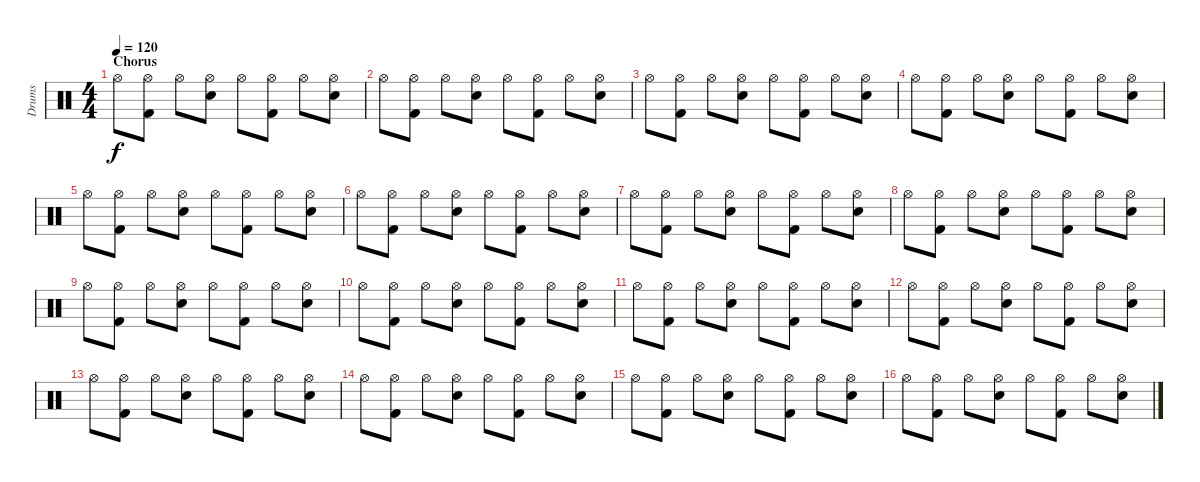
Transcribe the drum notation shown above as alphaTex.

\track ("Drums" "Drums") {instrument percussion}
\staff {score}
\articulation defaults
\ts (4 4)
\section ("" "Chorus")
\tempo 120
\clef neutral
\ks c "Hi-Hat (open)".8{dy f}
("Hi-Hat (open)" "Kick (hit) 2").8 "Hi-Hat (open)".8 ("Hi-Hat (open)" "Snare (hit) 2").8 "Hi-Hat (open)".8 ("Hi-Hat (open)" "Kick (hit) 2").8 "Hi-Hat (open)".8 ("Hi-Hat (open)" "Snare (hit) 2").8 |
"Hi-Hat (open)".8 ("Hi-Hat (open)" "Kick (hit) 2").8 "Hi-Hat (open)".8 ("Hi-Hat (open)" "Snare (hit) 2").8 "Hi-Hat (open)".8 ("Hi-Hat (open)" "Kick (hit) 2").8 "Hi-Hat (open)".8 ("Hi-Hat (open)" "Snare (hit) 2").8 |
"Hi-Hat (open)".8 ("Hi-Hat (open)" "Kick (hit) 2").8 "Hi-Hat (open)".8 ("Hi-Hat (open)" "Snare (hit) 2").8 "Hi-Hat (open)".8 ("Hi-Hat (open)" "Kick (hit) 2").8 "Hi-Hat (open)".8 ("Hi-Hat (open)" "Snare (hit) 2").8 |
"Hi-Hat (open)".8 ("Hi-Hat (open)" "Kick (hit) 2").8 "Hi-Hat (open)".8 ("Hi-Hat (open)" "Snare (hit) 2").8 "Hi-Hat (open)".8 ("Hi-Hat (open)" "Kick (hit) 2").8 "Hi-Hat (open)".8 ("Hi-Hat (open)" "Snare (hit) 2").8 |
"Hi-Hat (open)".8 ("Hi-Hat (open)" "Kick (hit) 2").8 "Hi-Hat (open)".8 ("Hi-Hat (open)" "Snare (hit) 2").8 "Hi-Hat (open)".8 ("Hi-Hat (open)" "Kick (hit) 2").8 "Hi-Hat (open)".8 ("Hi-Hat (open)" "Snare (hit) 2").8 |
"Hi-Hat (open)".8 ("Hi-Hat (open)" "Kick (hit) 2").8 "Hi-Hat (open)".8 ("Hi-Hat (open)" "Snare (hit) 2").8 "Hi-Hat (open)".8 ("Hi-Hat (open)" "Kick (hit) 2").8 "Hi-Hat (open)".8 ("Hi-Hat (open)" "Snare (hit) 2").8 |
"Hi-Hat (open)".8 ("Hi-Hat (open)" "Kick (hit) 2").8 "Hi-Hat (open)".8 ("Hi-Hat (open)" "Snare (hit) 2").8 "Hi-Hat (open)".8 ("Hi-Hat (open)" "Kick (hit) 2").8 "Hi-Hat (open)".8 ("Hi-Hat (open)" "Snare (hit) 2").8 |
"Hi-Hat (open)".8 ("Hi-Hat (open)" "Kick (hit) 2").8 "Hi-Hat (open)".8 ("Hi-Hat (open)" "Snare (hit) 2").8 "Hi-Hat (open)".8 ("Hi-Hat (open)" "Kick (hit) 2").8 "Hi-Hat (open)".8 ("Hi-Hat (open)" "Snare (hit) 2").8 |
"Hi-Hat (open)".8 ("Hi-Hat (open)" "Kick (hit) 2").8 "Hi-Hat (open)".8 ("Hi-Hat (open)" "Snare (hit) 2").8 "Hi-Hat (open)".8 ("Hi-Hat (open)" "Kick (hit) 2").8 "Hi-Hat (open)".8 ("Hi-Hat (open)" "Snare (hit) 2").8 |
"Hi-Hat (open)".8 ("Hi-Hat (open)" "Kick (hit) 2").8 "Hi-Hat (open)".8 ("Hi-Hat (open)" "Snare (hit) 2").8 "Hi-Hat (open)".8 ("Hi-Hat (open)" "Kick (hit) 2").8 "Hi-Hat (open)".8 ("Hi-Hat (open)" "Snare (hit) 2").8 |
"Hi-Hat (open)".8 ("Hi-Hat (open)" "Kick (hit) 2").8 "Hi-Hat (open)".8 ("Hi-Hat (open)" "Snare (hit) 2").8 "Hi-Hat (open)".8 ("Hi-Hat (open)" "Kick (hit) 2").8 "Hi-Hat (open)".8 ("Hi-Hat (open)" "Snare (hit) 2").8 |
"Hi-Hat (open)".8 ("Hi-Hat (open)" "Kick (hit) 2").8 "Hi-Hat (open)".8 ("Hi-Hat (open)" "Snare (hit) 2").8 "Hi-Hat (open)".8 ("Hi-Hat (open)" "Kick (hit) 2").8 "Hi-Hat (open)".8 ("Hi-Hat (open)" "Snare (hit) 2").8 |
"Hi-Hat (open)".8 ("Hi-Hat (open)" "Kick (hit) 2").8 "Hi-Hat (open)".8 ("Hi-Hat (open)" "Snare (hit) 2").8 "Hi-Hat (open)".8 ("Hi-Hat (open)" "Kick (hit) 2").8 "Hi-Hat (open)".8 ("Hi-Hat (open)" "Snare (hit) 2").8 |
"Hi-Hat (open)".8 ("Hi-Hat (open)" "Kick (hit) 2").8 "Hi-Hat (open)".8 ("Hi-Hat (open)" "Snare (hit) 2").8 "Hi-Hat (open)".8 ("Hi-Hat (open)" "Kick (hit) 2").8 "Hi-Hat (open)".8 ("Hi-Hat (open)" "Snare (hit) 2").8 |
"Hi-Hat (open)".8 ("Hi-Hat (open)" "Kick (hit) 2").8 "Hi-Hat (open)".8 ("Hi-Hat (open)" "Snare (hit) 2").8 "Hi-Hat (open)".8 ("Hi-Hat (open)" "Kick (hit) 2").8 "Hi-Hat (open)".8 ("Hi-Hat (open)" "Snare (hit) 2").8 |
"Hi-Hat (open)".8 ("Hi-Hat (open)" "Kick (hit) 2").8 "Hi-Hat (open)".8 ("Hi-Hat (open)" "Snare (hit) 2").8 "Hi-Hat (open)".8 ("Hi-Hat (open)" "Kick (hit) 2").8 "Hi-Hat (open)".8 ("Hi-Hat (open)" "Snare (hit) 2").8
